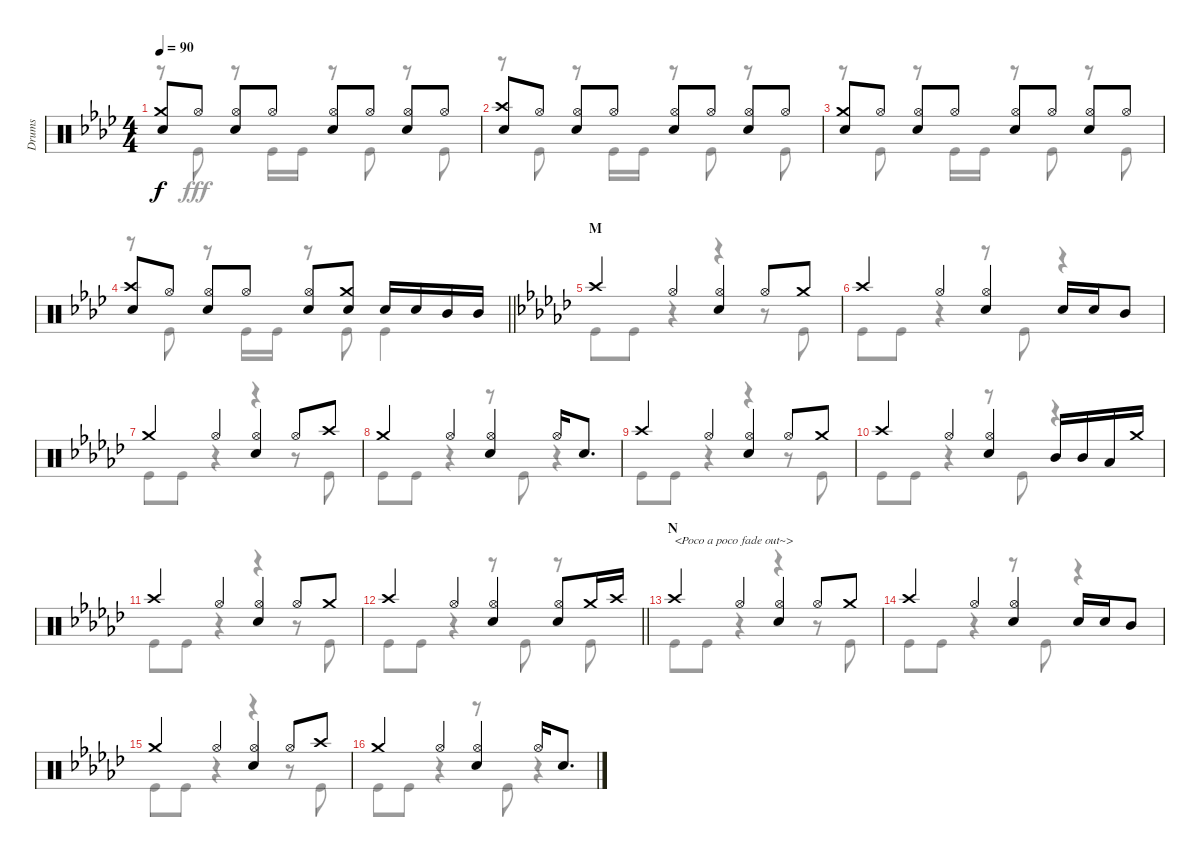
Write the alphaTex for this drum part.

\track ("Drums" "Drums") {instrument percussion}
\staff {score}
\articulation defaults
\voice
\ts (4 4)
\tempo 90
\clef neutral
\ks ab
("Crash medium (hit)" "Snare (hit) 2").8{dy f} "Hi-Hat (open)".8 ("Hi-Hat (open)" "Snare (hit) 2").8 "Hi-Hat (open)".8 ("Hi-Hat (open)" "Snare (hit) 2").8 "Hi-Hat (open)".8 ("Hi-Hat (open)" "Snare (hit) 2").8 "Hi-Hat (open)".8 |
("Crash high (hit)" "Snare (hit) 2").8 "Hi-Hat (open)".8 ("Hi-Hat (open)" "Snare (hit) 2").8 "Hi-Hat (open)".8 ("Hi-Hat (open)" "Snare (hit) 2").8 "Hi-Hat (open)".8 ("Hi-Hat (open)" "Snare (hit) 2").8 "Hi-Hat (open)".8 |
("Crash medium (hit)" "Snare (hit) 2").8 "Hi-Hat (open)".8 ("Hi-Hat (open)" "Snare (hit) 2").8 "Hi-Hat (open)".8 ("Hi-Hat (open)" "Snare (hit) 2").8 "Hi-Hat (open)".8 ("Hi-Hat (open)" "Snare (hit) 2").8 "Hi-Hat (open)".8 |
\barLineRight lightlight
("Crash high (hit)" "Snare (hit) 2").8 "Hi-Hat (open)".8 ("Hi-Hat (open)" "Snare (hit) 2").8 "Hi-Hat (open)".8 ("Hi-Hat (open)" "Snare (hit) 2").8 ("Crash medium (hit)" "Snare (hit) 2").8 "Snare (hit) 2".16 "Snare (hit) 2".16 "Mid Tom (hit)".16 "Mid Tom (hit)".16 |
\section ("" "M")
\ks gb "Crash high (hit)".4 "Hi-Hat (open)".4
("Hi-Hat (open)" "Snare (hit) 2").4 "Hi-Hat (open)".8 "Crash medium (hit)".8 |
"Crash high (hit)".4 "Hi-Hat (open)".4 ("Hi-Hat (open)" "Snare (hit) 2").4 "Snare (hit) 2".16 "Snare (hit) 2".16 "Mid Tom (hit)".8 |
"Crash medium (hit)".4 "Hi-Hat (open)".4 ("Hi-Hat (open)" "Snare (hit) 2").4 "Hi-Hat (open)".8 "Crash high (hit)".8 |
"Crash medium (hit)".4 "Hi-Hat (open)".4 ("Hi-Hat (open)" "Snare (hit) 2").4 "Hi-Hat (open)".16 "Snare (hit) 2".8{d} |
"Crash high (hit)".4 "Hi-Hat (open)".4 ("Hi-Hat (open)" "Snare (hit) 2").4 "Hi-Hat (open)".8 "Crash medium (hit)".8 |
"Crash high (hit)".4 "Hi-Hat (open)".4 ("Hi-Hat (open)" "Snare (hit) 2").4 "Mid Tom (hit)".16 "Mid Tom (hit)".16 "Low Tom (hit)".16 "Crash medium (hit)".16 |
"Crash high (hit)".4 "Hi-Hat (open)".4 ("Hi-Hat (open)" "Snare (hit) 2").4 "Hi-Hat (open)".8 "Crash medium (hit)".8 |
\barLineRight lightlight "Crash high (hit)".4 "Hi-Hat (open)".4
("Hi-Hat (open)" "Snare (hit) 2").4 ("Hi-Hat (open)" "Snare (hit) 2").8 "Crash medium (hit)".16 "Crash high (hit)".16 |
\section ("" "N")
"Crash high (hit)".4{txt "<Poco a poco fade out~>"} "Hi-Hat (open)".4 ("Hi-Hat (open)" "Snare (hit) 2").4 "Hi-Hat (open)".8 "Crash medium (hit)".8 |
"Crash high (hit)".4 "Hi-Hat (open)".4 ("Hi-Hat (open)" "Snare (hit) 2").4 "Snare (hit) 2".16 "Snare (hit) 2".16 "Mid Tom (hit)".8 |
"Crash medium (hit)".4 "Hi-Hat (open)".4 ("Hi-Hat (open)" "Snare (hit) 2").4 "Hi-Hat (open)".8 "Crash high (hit)".8 |
"Crash medium (hit)".4 "Hi-Hat (open)".4 ("Hi-Hat (open)" "Snare (hit) 2").4 "Hi-Hat (open)".16 "Snare (hit) 2".8{d}
\voice
\clef neutral
\ottava regular
\simile none
\ks ab
r.8{dy fff} "Kick (hit)".8 r.8 "Kick (hit)".16 "Kick (hit)".16 r.8 "Kick (hit)".8 r.8 "Kick (hit)".8 |
r.8 "Kick (hit)".8 r.8 "Kick (hit)".16 "Kick (hit)".16 r.8 "Kick (hit)".8 r.8 "Kick (hit)".8 |
r.8 "Kick (hit)".8 r.8 "Kick (hit)".16 "Kick (hit)".16 r.8 "Kick (hit)".8 r.8 "Kick (hit)".8 |
\barLineRight lightlight
r.8 "Kick (hit)".8 r.8 "Kick (hit)".16 "Kick (hit)".16 r.8 "Kick (hit)".8 "Kick (hit)".4 |
\ks gb "Kick (hit)".8 "Kick (hit)".8
r.4 r.4 r.8 "Kick (hit)".8 |
"Kick (hit)".8 "Kick (hit)".8 r.4 r.8 "Kick (hit)".8 r.4 |
"Kick (hit)".8 "Kick (hit)".8 r.4 r.4 r.8 "Kick (hit)".8 |
"Kick (hit)".8 "Kick (hit)".8 r.4 r.8 "Kick (hit)".8 r.4 |
"Kick (hit)".8 "Kick (hit)".8 r.4 r.4 r.8 "Kick (hit)".8 |
"Kick (hit)".8 "Kick (hit)".8 r.4 r.8 "Kick (hit)".8 r.4 |
"Kick (hit)".8 "Kick (hit)".8 r.4 r.4 r.8 "Kick (hit)".8 |
\barLineRight lightlight "Kick (hit)".8 "Kick (hit)".8
r.4 r.8 "Kick (hit)".8 r.8 "Kick (hit)".8 |
"Kick (hit)".8 "Kick (hit)".8 r.4 r.4 r.8 "Kick (hit)".8 |
"Kick (hit)".8 "Kick (hit)".8 r.4 r.8 "Kick (hit)".8 r.4 |
"Kick (hit)".8 "Kick (hit)".8 r.4 r.4 r.8 "Kick (hit)".8 |
"Kick (hit)".8 "Kick (hit)".8 r.4 r.8 "Kick (hit)".8 r.4
